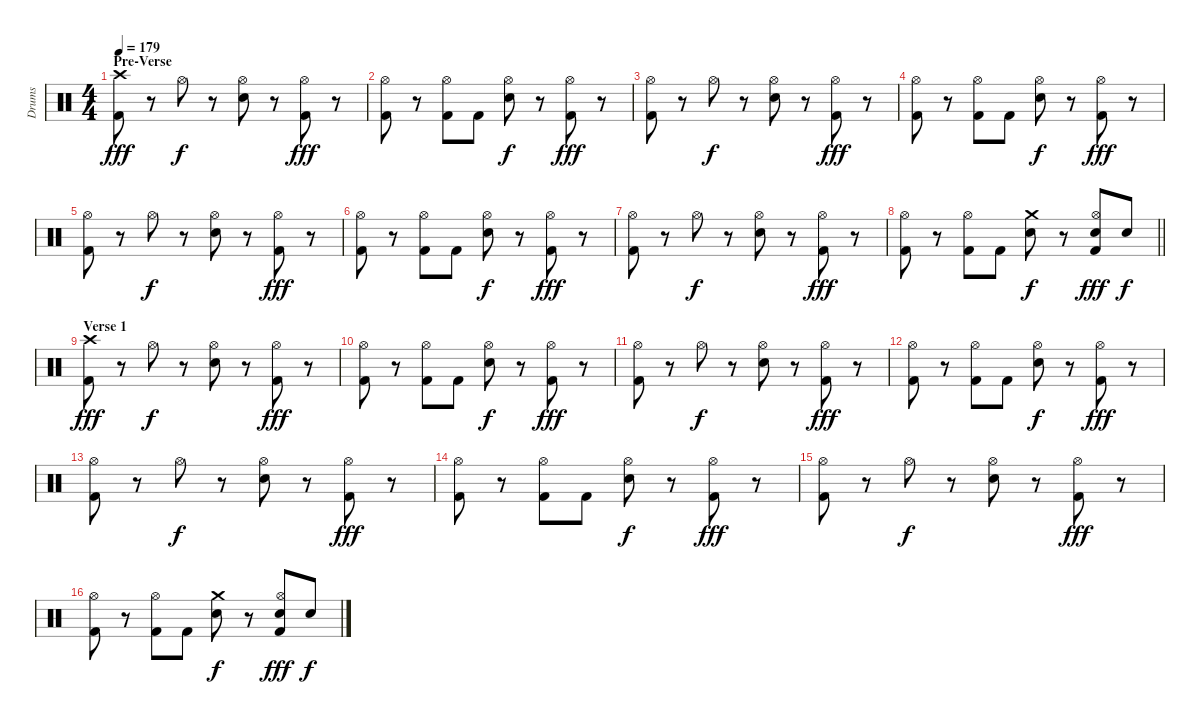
\track ("Drums" "Drums") {instrument percussion}
\staff {score}
\articulation defaults
\ts (4 4)
\section ("" "Pre-Verse")
\tempo 179
\clef neutral
\ks c
("Crash high (hit)" "Kick (hit) 2").8{dy fff} r.8 "Hi-Hat (open)".8{dy f} r.8 ("Hi-Hat (open)" "Snare (hit) 2").8 r.8 ("Hi-Hat (open)" "Kick (hit) 2").8{dy fff} r.8 |
("Hi-Hat (open)" "Kick (hit) 2").8 r.8 ("Hi-Hat (open)" "Kick (hit) 2").8 "Kick (hit) 2".8 ("Hi-Hat (open)" "Snare (hit) 2").8{dy f} r.8 ("Hi-Hat (open)" "Kick (hit) 2").8{dy fff} r.8 |
("Hi-Hat (open)" "Kick (hit) 2").8 r.8 "Hi-Hat (open)".8{dy f} r.8 ("Hi-Hat (open)" "Snare (hit) 2").8 r.8 ("Hi-Hat (open)" "Kick (hit) 2").8{dy fff} r.8 |
("Hi-Hat (open)" "Kick (hit) 2").8 r.8 ("Hi-Hat (open)" "Kick (hit) 2").8 "Kick (hit) 2".8 ("Hi-Hat (open)" "Snare (hit) 2").8{dy f} r.8 ("Hi-Hat (open)" "Kick (hit) 2").8{dy fff} r.8 |
("Hi-Hat (open)" "Kick (hit) 2").8 r.8 "Hi-Hat (open)".8{dy f} r.8 ("Hi-Hat (open)" "Snare (hit) 2").8 r.8 ("Hi-Hat (open)" "Kick (hit) 2").8{dy fff} r.8 |
("Hi-Hat (open)" "Kick (hit) 2").8 r.8 ("Hi-Hat (open)" "Kick (hit) 2").8 "Kick (hit) 2".8 ("Hi-Hat (open)" "Snare (hit) 2").8{dy f} r.8 ("Hi-Hat (open)" "Kick (hit) 2").8{dy fff} r.8 |
("Hi-Hat (open)" "Kick (hit) 2").8 r.8 "Hi-Hat (open)".8{dy f} r.8 ("Hi-Hat (open)" "Snare (hit) 2").8 r.8 ("Hi-Hat (open)" "Kick (hit) 2").8{dy fff} r.8 |
\barLineRight lightlight
("Hi-Hat (open)" "Kick (hit) 2").8 r.8 ("Hi-Hat (open)" "Kick (hit) 2").8 "Kick (hit) 2".8 ("Crash medium (hit)" "Snare (hit) 2").8{dy f} r.8 ("Hi-Hat (open)" "Snare (hit) 2" "Kick (hit) 2").8{dy fff} "Snare (hit) 2".8{dy f} |
\section ("" "Verse 1")
("Crash high (hit)" "Kick (hit) 2").8{dy fff} r.8 "Hi-Hat (open)".8{dy f} r.8 ("Hi-Hat (open)" "Snare (hit) 2").8 r.8 ("Hi-Hat (open)" "Kick (hit) 2").8{dy fff} r.8 |
("Hi-Hat (open)" "Kick (hit) 2").8 r.8 ("Hi-Hat (open)" "Kick (hit) 2").8 "Kick (hit) 2".8 ("Hi-Hat (open)" "Snare (hit) 2").8{dy f} r.8 ("Hi-Hat (open)" "Kick (hit) 2").8{dy fff} r.8 |
("Hi-Hat (open)" "Kick (hit) 2").8 r.8 "Hi-Hat (open)".8{dy f} r.8 ("Hi-Hat (open)" "Snare (hit) 2").8 r.8 ("Hi-Hat (open)" "Kick (hit) 2").8{dy fff} r.8 |
("Hi-Hat (open)" "Kick (hit) 2").8 r.8 ("Hi-Hat (open)" "Kick (hit) 2").8 "Kick (hit) 2".8 ("Hi-Hat (open)" "Snare (hit) 2").8{dy f} r.8 ("Hi-Hat (open)" "Kick (hit) 2").8{dy fff} r.8 |
("Hi-Hat (open)" "Kick (hit) 2").8 r.8 "Hi-Hat (open)".8{dy f} r.8 ("Hi-Hat (open)" "Snare (hit) 2").8 r.8 ("Hi-Hat (open)" "Kick (hit) 2").8{dy fff} r.8 |
("Hi-Hat (open)" "Kick (hit) 2").8 r.8 ("Hi-Hat (open)" "Kick (hit) 2").8 "Kick (hit) 2".8 ("Hi-Hat (open)" "Snare (hit) 2").8{dy f} r.8 ("Hi-Hat (open)" "Kick (hit) 2").8{dy fff} r.8 |
("Hi-Hat (open)" "Kick (hit) 2").8 r.8 "Hi-Hat (open)".8{dy f} r.8 ("Hi-Hat (open)" "Snare (hit) 2").8 r.8 ("Hi-Hat (open)" "Kick (hit) 2").8{dy fff} r.8 |
("Hi-Hat (open)" "Kick (hit) 2").8 r.8 ("Hi-Hat (open)" "Kick (hit) 2").8 "Kick (hit) 2".8 ("Crash medium (hit)" "Snare (hit) 2").8{dy f} r.8 ("Hi-Hat (open)" "Snare (hit) 2" "Kick (hit) 2").8{dy fff} "Snare (hit) 2".8{dy f}
